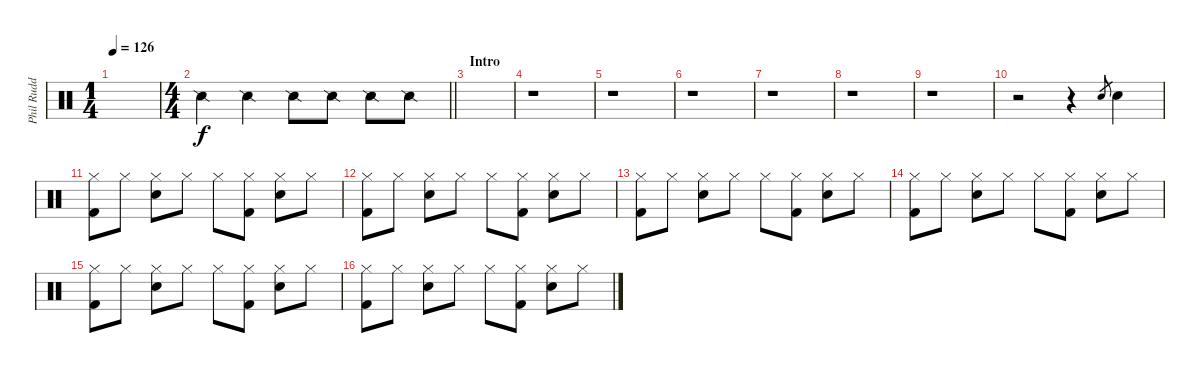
\track ("Phil Rudd (Drums)" "Phil Rudd ") {instrument percussion}
\staff {score}
\articulation defaults
\ts (1 4)
\tempo 126
\clef neutral
\ks c
|
\ts (4 4)
\barLineRight lightlight "Snare (side stick) 2".4 "Snare (side stick) 2".4 "Snare (side stick) 2".8 "Snare (side stick) 2".8 "Snare (side stick) 2".8 "Snare (side stick) 2".8
|
\section ("" "Intro")
|
r.1 |
r.1 |
r.1 |
r.1 |
r.1 |
r.1 |
r.2 r.4 "Snare (hit) 2".8{gr} "Snare (hit) 2".4 |
("Hi-Hat (closed)" "Kick (hit) 2").8 "Hi-Hat (closed)".8 ("Hi-Hat (closed)" "Snare (hit) 2").8 "Hi-Hat (closed)".8 "Hi-Hat (closed)".8 ("Hi-Hat (closed)" "Kick (hit) 2").8 ("Hi-Hat (closed)" "Snare (hit) 2").8 "Hi-Hat (closed)".8 |
("Hi-Hat (closed)" "Kick (hit) 2").8 "Hi-Hat (closed)".8 ("Hi-Hat (closed)" "Snare (hit) 2").8 "Hi-Hat (closed)".8 "Hi-Hat (closed)".8 ("Hi-Hat (closed)" "Kick (hit) 2").8 ("Hi-Hat (closed)" "Snare (hit) 2").8 "Hi-Hat (closed)".8 |
("Hi-Hat (closed)" "Kick (hit) 2").8 "Hi-Hat (closed)".8 ("Hi-Hat (closed)" "Snare (hit) 2").8 "Hi-Hat (closed)".8 "Hi-Hat (closed)".8 ("Hi-Hat (closed)" "Kick (hit) 2").8 ("Hi-Hat (closed)" "Snare (hit) 2").8 "Hi-Hat (closed)".8 |
("Hi-Hat (closed)" "Kick (hit) 2").8 "Hi-Hat (closed)".8 ("Hi-Hat (closed)" "Snare (hit) 2").8 "Hi-Hat (closed)".8 "Hi-Hat (closed)".8 ("Hi-Hat (closed)" "Kick (hit) 2").8 ("Hi-Hat (closed)" "Snare (hit) 2").8 "Hi-Hat (closed)".8 |
("Hi-Hat (closed)" "Kick (hit) 2").8 "Hi-Hat (closed)".8 ("Hi-Hat (closed)" "Snare (hit) 2").8 "Hi-Hat (closed)".8 "Hi-Hat (closed)".8 ("Hi-Hat (closed)" "Kick (hit) 2").8 ("Hi-Hat (closed)" "Snare (hit) 2").8 "Hi-Hat (closed)".8 |
("Hi-Hat (closed)" "Kick (hit) 2").8 "Hi-Hat (closed)".8 ("Hi-Hat (closed)" "Snare (hit) 2").8 "Hi-Hat (closed)".8 "Hi-Hat (closed)".8 ("Hi-Hat (closed)" "Kick (hit) 2").8 ("Hi-Hat (closed)" "Snare (hit) 2").8 "Hi-Hat (closed)".8
